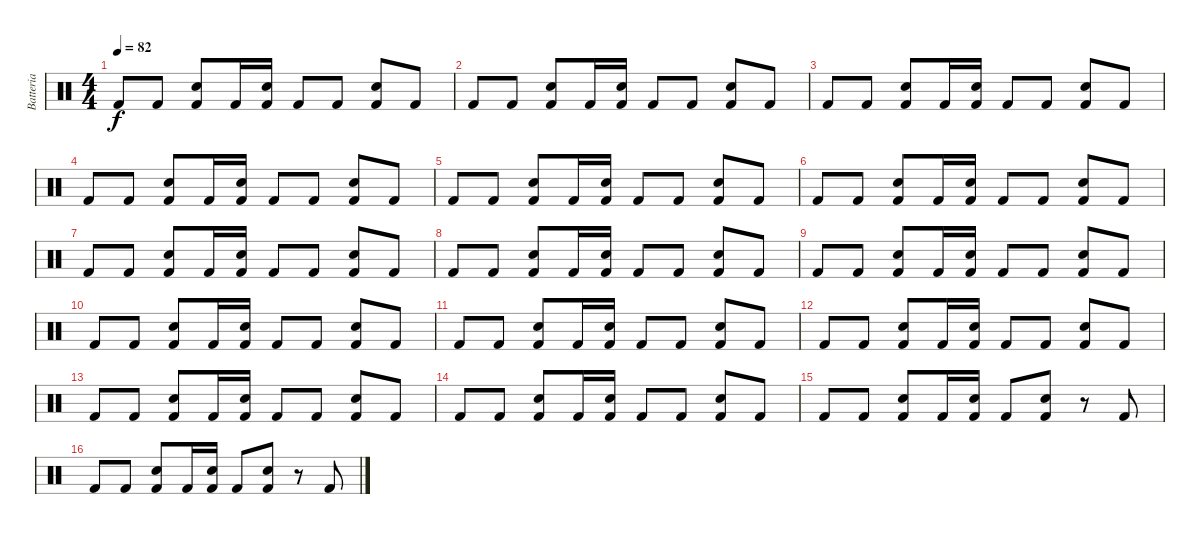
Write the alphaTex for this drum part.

\track ("Batteria" "Batteria") {instrument percussion}
\staff {score}
\articulation defaults
\ts (4 4)
\tempo 82
\clef neutral
\ks c "Kick (hit) 2".8{dy f} "Kick (hit) 2".8
("Snare (hit) 2" "Kick (hit) 2").8 "Kick (hit) 2".16 ("Snare (hit) 2" "Kick (hit) 2").16 "Kick (hit) 2".8 "Kick (hit) 2".8 ("Snare (hit) 2" "Kick (hit) 2").8 "Kick (hit) 2".8 |
"Kick (hit) 2".8 "Kick (hit) 2".8 ("Snare (hit) 2" "Kick (hit) 2").8 "Kick (hit) 2".16 ("Snare (hit) 2" "Kick (hit) 2").16 "Kick (hit) 2".8 "Kick (hit) 2".8 ("Snare (hit) 2" "Kick (hit) 2").8 "Kick (hit) 2".8 |
"Kick (hit) 2".8 "Kick (hit) 2".8 ("Snare (hit) 2" "Kick (hit) 2").8 "Kick (hit) 2".16 ("Snare (hit) 2" "Kick (hit) 2").16 "Kick (hit) 2".8 "Kick (hit) 2".8 ("Snare (hit) 2" "Kick (hit) 2").8 "Kick (hit) 2".8 |
"Kick (hit) 2".8 "Kick (hit) 2".8 ("Snare (hit) 2" "Kick (hit) 2").8 "Kick (hit) 2".16 ("Snare (hit) 2" "Kick (hit) 2").16 "Kick (hit) 2".8 "Kick (hit) 2".8 ("Snare (hit) 2" "Kick (hit) 2").8 "Kick (hit) 2".8 |
"Kick (hit) 2".8 "Kick (hit) 2".8 ("Snare (hit) 2" "Kick (hit) 2").8 "Kick (hit) 2".16 ("Snare (hit) 2" "Kick (hit) 2").16 "Kick (hit) 2".8 "Kick (hit) 2".8 ("Snare (hit) 2" "Kick (hit) 2").8 "Kick (hit) 2".8 |
"Kick (hit) 2".8 "Kick (hit) 2".8 ("Snare (hit) 2" "Kick (hit) 2").8 "Kick (hit) 2".16 ("Snare (hit) 2" "Kick (hit) 2").16 "Kick (hit) 2".8 "Kick (hit) 2".8 ("Snare (hit) 2" "Kick (hit) 2").8 "Kick (hit) 2".8 |
"Kick (hit) 2".8 "Kick (hit) 2".8 ("Snare (hit) 2" "Kick (hit) 2").8 "Kick (hit) 2".16 ("Snare (hit) 2" "Kick (hit) 2").16 "Kick (hit) 2".8 "Kick (hit) 2".8 ("Snare (hit) 2" "Kick (hit) 2").8 "Kick (hit) 2".8 |
"Kick (hit) 2".8 "Kick (hit) 2".8 ("Snare (hit) 2" "Kick (hit) 2").8 "Kick (hit) 2".16 ("Snare (hit) 2" "Kick (hit) 2").16 "Kick (hit) 2".8 "Kick (hit) 2".8 ("Snare (hit) 2" "Kick (hit) 2").8 "Kick (hit) 2".8 |
"Kick (hit) 2".8 "Kick (hit) 2".8 ("Snare (hit) 2" "Kick (hit) 2").8 "Kick (hit) 2".16 ("Snare (hit) 2" "Kick (hit) 2").16 "Kick (hit) 2".8 "Kick (hit) 2".8 ("Snare (hit) 2" "Kick (hit) 2").8 "Kick (hit) 2".8 |
"Kick (hit) 2".8 "Kick (hit) 2".8 ("Snare (hit) 2" "Kick (hit) 2").8 "Kick (hit) 2".16 ("Snare (hit) 2" "Kick (hit) 2").16 "Kick (hit) 2".8 "Kick (hit) 2".8 ("Snare (hit) 2" "Kick (hit) 2").8 "Kick (hit) 2".8 |
"Kick (hit) 2".8 "Kick (hit) 2".8 ("Snare (hit) 2" "Kick (hit) 2").8 "Kick (hit) 2".16 ("Snare (hit) 2" "Kick (hit) 2").16 "Kick (hit) 2".8 "Kick (hit) 2".8 ("Snare (hit) 2" "Kick (hit) 2").8 "Kick (hit) 2".8 |
"Kick (hit) 2".8 "Kick (hit) 2".8 ("Snare (hit) 2" "Kick (hit) 2").8 "Kick (hit) 2".16 ("Snare (hit) 2" "Kick (hit) 2").16 "Kick (hit) 2".8 "Kick (hit) 2".8 ("Snare (hit) 2" "Kick (hit) 2").8 "Kick (hit) 2".8 |
"Kick (hit) 2".8 "Kick (hit) 2".8 ("Snare (hit) 2" "Kick (hit) 2").8 "Kick (hit) 2".16 ("Snare (hit) 2" "Kick (hit) 2").16 "Kick (hit) 2".8 "Kick (hit) 2".8 ("Snare (hit) 2" "Kick (hit) 2").8 "Kick (hit) 2".8 |
"Kick (hit) 2".8 "Kick (hit) 2".8 ("Snare (hit) 2" "Kick (hit) 2").8 "Kick (hit) 2".16 ("Snare (hit) 2" "Kick (hit) 2").16 "Kick (hit) 2".8 "Kick (hit) 2".8 ("Snare (hit) 2" "Kick (hit) 2").8 "Kick (hit) 2".8 |
"Kick (hit) 2".8 "Kick (hit) 2".8 ("Snare (hit) 2" "Kick (hit) 2").8 "Kick (hit) 2".16 ("Snare (hit) 2" "Kick (hit) 2").16 "Kick (hit) 2".8 ("Snare (hit) 2" "Kick (hit) 2").8 r.8 "Kick (hit) 2".8 |
"Kick (hit) 2".8 "Kick (hit) 2".8 ("Snare (hit) 2" "Kick (hit) 2").8 "Kick (hit) 2".16 ("Snare (hit) 2" "Kick (hit) 2").16 "Kick (hit) 2".8 ("Snare (hit) 2" "Kick (hit) 2").8 r.8 "Kick (hit) 2".8
